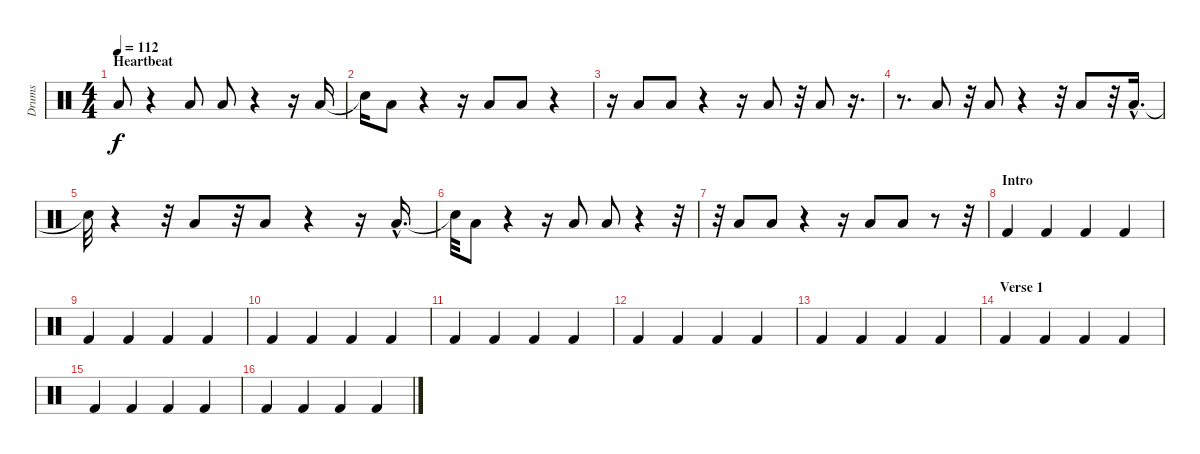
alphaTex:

\track ("Drums" "Drums") {instrument percussion}
\staff {score}
\articulation defaults
\ts (4 4)
\section ("" "Heartbeat")
\tempo 112
\clef neutral
\ks c "Low Floor Tom (hit)".8{dy f volume 8}
r.4 "Low Floor Tom (hit)".8 "Low Floor Tom (hit)".8 r.4 r.16 "Low Floor Tom (hit)".16 |
"Snare (hit)"{t}.16 "Low Floor Tom (hit)".8 r.4 r.16 "Low Floor Tom (hit)".8 "Low Floor Tom (hit)".8 r.4 |
r.16 "Low Floor Tom (hit)".8 "Low Floor Tom (hit)".8 r.4 r.16 "Low Floor Tom (hit)".8 r.32 "Low Floor Tom (hit)".8 r.16{d} |
r.8{d} "Low Floor Tom (hit)".8 r.32 "Low Floor Tom (hit)".8 r.4 r.32 "Low Floor Tom (hit)".8 r.32 "Low Floor Tom (hit)"{hac}.16{d} |
"Snare (hit)"{t}.32 r.4 r.32 "Low Floor Tom (hit)".8 r.32 "Low Floor Tom (hit)".8 r.4 r.16 "Low Floor Tom (hit)"{hac}.16{d} |
"Snare (hit)"{t}.32 "Low Floor Tom (hit)".8 r.4 r.16 "Low Floor Tom (hit)".8 "Low Floor Tom (hit)".8 r.4 r.32 |
r.32 "Low Floor Tom (hit)".8 "Low Floor Tom (hit)".8 r.4 r.16 "Low Floor Tom (hit)".8 "Low Floor Tom (hit)".8 r.8 r.32{volume 15} |
\section ("" "Intro")
"Kick (hit) 2".4 "Kick (hit) 2".4 "Kick (hit) 2".4 "Kick (hit) 2".4 |
"Kick (hit) 2".4 "Kick (hit) 2".4 "Kick (hit) 2".4 "Kick (hit) 2".4 |
"Kick (hit) 2".4 "Kick (hit) 2".4 "Kick (hit) 2".4 "Kick (hit) 2".4 |
"Kick (hit) 2".4 "Kick (hit) 2".4 "Kick (hit) 2".4 "Kick (hit) 2".4 |
"Kick (hit) 2".4 "Kick (hit) 2".4 "Kick (hit) 2".4 "Kick (hit) 2".4 |
"Kick (hit) 2".4 "Kick (hit) 2".4 "Kick (hit) 2".4 "Kick (hit) 2".4 |
\section ("" "Verse 1")
"Kick (hit) 2".4 "Kick (hit) 2".4 "Kick (hit) 2".4 "Kick (hit) 2".4 |
"Kick (hit) 2".4 "Kick (hit) 2".4 "Kick (hit) 2".4 "Kick (hit) 2".4 |
"Kick (hit) 2".4 "Kick (hit) 2".4 "Kick (hit) 2".4 "Kick (hit) 2".4
